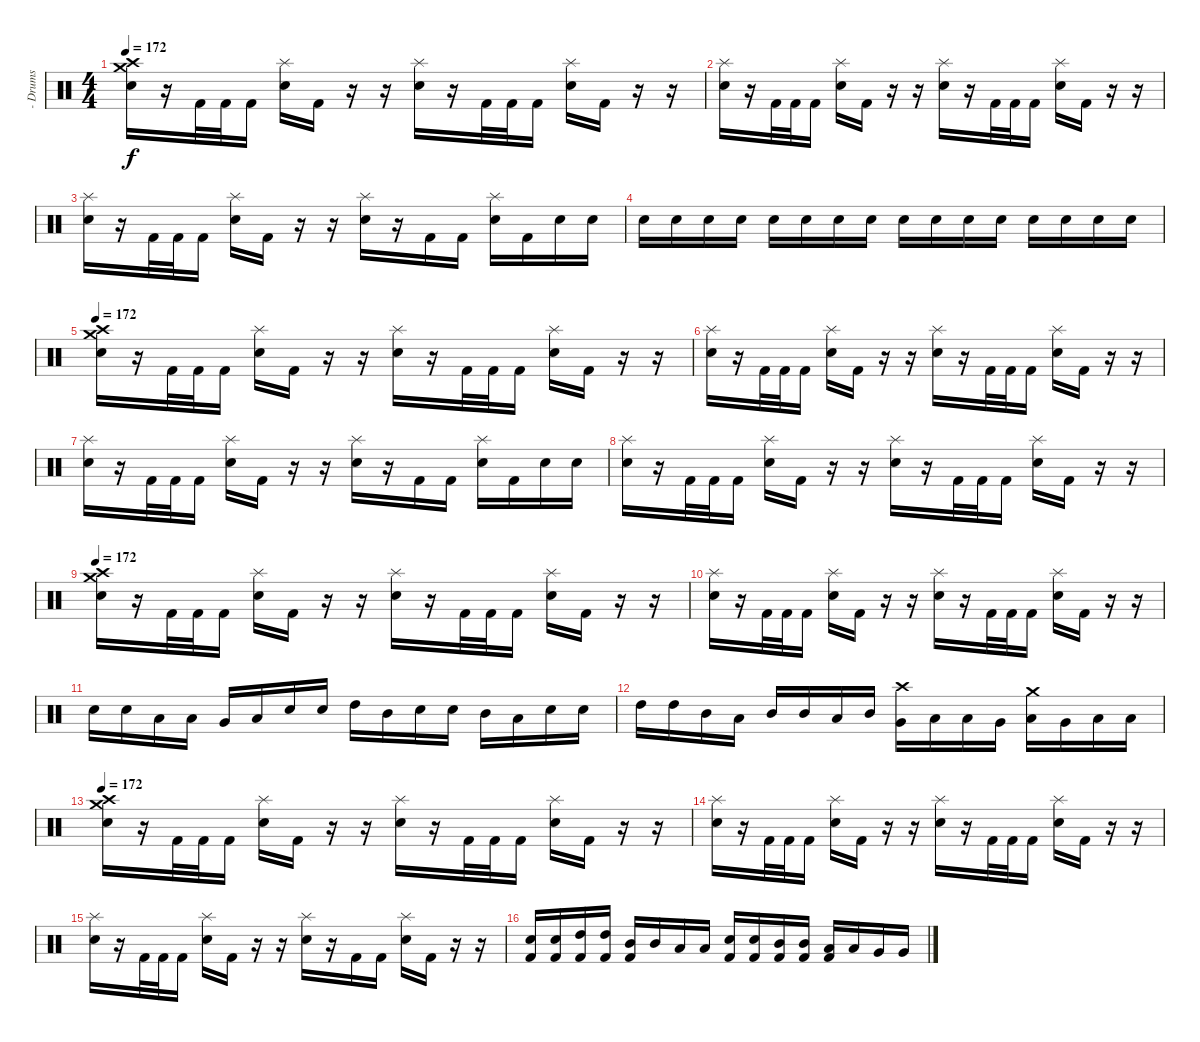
\track (" - Drums" " - Drums") {instrument percussion}
\staff {score}
\articulation defaults
\ts (4 4)
\tempo 172
\clef neutral
\ks c
("Crash high (hit)" "Crash medium (hit)" "Electric Snare (hit)").16{dy f} r.16 "Kick (hit) 2".32 "Kick (hit) 2".32 "Kick (hit) 2".16 ("Splash (hit)" "Electric Snare (hit)").16 "Kick (hit) 2".16 r.16 r.16 ("Splash (hit)" "Electric Snare (hit)").16 r.16 "Kick (hit) 2".32 "Kick (hit) 2".32 "Kick (hit) 2".16 ("Splash (hit)" "Electric Snare (hit)").16 "Kick (hit) 2".16 r.16 r.16 |
("Splash (hit)" "Electric Snare (hit)").16 r.16 "Kick (hit) 2".32 "Kick (hit) 2".32 "Kick (hit) 2".16 ("Splash (hit)" "Electric Snare (hit)").16 "Kick (hit) 2".16 r.16 r.16 ("Splash (hit)" "Electric Snare (hit)").16 r.16 "Kick (hit) 2".32 "Kick (hit) 2".32 "Kick (hit) 2".16 ("Splash (hit)" "Electric Snare (hit)").16 "Kick (hit) 2".16 r.16 r.16 |
("Splash (hit)" "Electric Snare (hit)").16 r.16 "Kick (hit) 2".32 "Kick (hit) 2".32 "Kick (hit) 2".16 ("Splash (hit)" "Electric Snare (hit)").16 "Kick (hit) 2".16 r.16 r.16 ("Splash (hit)" "Electric Snare (hit)").16 r.16 "Kick (hit) 2".16 "Kick (hit) 2".16 ("Splash (hit)" "Electric Snare (hit)").16 "Kick (hit) 2".16 "Electric Snare (hit)".16 "Electric Snare (hit)".16 |
"Electric Snare (hit)".16 "Electric Snare (hit)".16 "Electric Snare (hit)".16 "Electric Snare (hit)".16 "Electric Snare (hit)".16 "Electric Snare (hit)".16 "Electric Snare (hit)".16 "Electric Snare (hit)".16 "Electric Snare (hit)".16 "Electric Snare (hit)".16 "Electric Snare (hit)".16 "Electric Snare (hit)".16 "Electric Snare (hit)".16 "Electric Snare (hit)".16 "Electric Snare (hit)".16 "Electric Snare (hit)".16 |
\tempo 172
("Crash high (hit)" "Crash medium (hit)" "Electric Snare (hit)").16 r.16 "Kick (hit) 2".32 "Kick (hit) 2".32 "Kick (hit) 2".16 ("Splash (hit)" "Electric Snare (hit)").16 "Kick (hit) 2".16 r.16 r.16 ("Splash (hit)" "Electric Snare (hit)").16 r.16 "Kick (hit) 2".32 "Kick (hit) 2".32 "Kick (hit) 2".16 ("Splash (hit)" "Electric Snare (hit)").16 "Kick (hit) 2".16 r.16 r.16 |
("Splash (hit)" "Electric Snare (hit)").16 r.16 "Kick (hit) 2".32 "Kick (hit) 2".32 "Kick (hit) 2".16 ("Splash (hit)" "Electric Snare (hit)").16 "Kick (hit) 2".16 r.16 r.16 ("Splash (hit)" "Electric Snare (hit)").16 r.16 "Kick (hit) 2".32 "Kick (hit) 2".32 "Kick (hit) 2".16 ("Splash (hit)" "Electric Snare (hit)").16 "Kick (hit) 2".16 r.16 r.16 |
("Splash (hit)" "Electric Snare (hit)").16 r.16 "Kick (hit) 2".32 "Kick (hit) 2".32 "Kick (hit) 2".16 ("Splash (hit)" "Electric Snare (hit)").16 "Kick (hit) 2".16 r.16 r.16 ("Splash (hit)" "Electric Snare (hit)").16 r.16 "Kick (hit) 2".16 "Kick (hit) 2".16 ("Splash (hit)" "Electric Snare (hit)").16 "Kick (hit) 2".16 "Electric Snare (hit)".16 "Electric Snare (hit)".16 |
("Splash (hit)" "Electric Snare (hit)").16 r.16 "Kick (hit) 2".32 "Kick (hit) 2".32 "Kick (hit) 2".16 ("Splash (hit)" "Electric Snare (hit)").16 "Kick (hit) 2".16 r.16 r.16 ("Splash (hit)" "Electric Snare (hit)").16 r.16 "Kick (hit) 2".32 "Kick (hit) 2".32 "Kick (hit) 2".16 ("Splash (hit)" "Electric Snare (hit)").16 "Kick (hit) 2".16 r.16 r.16 |
\tempo 172
("Crash high (hit)" "Crash medium (hit)" "Electric Snare (hit)").16 r.16 "Kick (hit) 2".32 "Kick (hit) 2".32 "Kick (hit) 2".16 ("Splash (hit)" "Electric Snare (hit)").16 "Kick (hit) 2".16 r.16 r.16 ("Splash (hit)" "Electric Snare (hit)").16 r.16 "Kick (hit) 2".32 "Kick (hit) 2".32 "Kick (hit) 2".16 ("Splash (hit)" "Electric Snare (hit)").16 "Kick (hit) 2".16 r.16 r.16 |
("Splash (hit)" "Electric Snare (hit)").16 r.16 "Kick (hit) 2".32 "Kick (hit) 2".32 "Kick (hit) 2".16 ("Splash (hit)" "Electric Snare (hit)").16 "Kick (hit) 2".16 r.16 r.16 ("Splash (hit)" "Electric Snare (hit)").16 r.16 "Kick (hit) 2".32 "Kick (hit) 2".32 "Kick (hit) 2".16 ("Splash (hit)" "Electric Snare (hit)").16 "Kick (hit) 2".16 r.16 r.16 |
"Electric Snare (hit)".16 "Electric Snare (hit)".16 "Low Tom (hit)".16 "Low Tom (hit)".16 "Very Low Tom (hit)".16 "Low Tom (hit)".16 "Electric Snare (hit)".16 "Electric Snare (hit)".16 "High Tom (hit)".16 "Mid Tom (hit)".16 "Electric Snare (hit)".16 "Electric Snare (hit)".16 "Mid Tom (hit)".16 "Low Tom (hit)".16 "Electric Snare (hit)".16 "Electric Snare (hit)".16 |
"High Tom (hit)".16 "High Tom (hit)".16 "Mid Tom (hit)".16 "Low Tom (hit)".16 "Mid Tom (hit)".16 "Mid Tom (hit)".16 "Low Tom (hit)".16 "Mid Tom (hit)".16 ("Crash high (hit)" "Very Low Tom (hit)").16 "Low Tom (hit)".16 "Low Tom (hit)".16 "Very Low Tom (hit)".16 ("Crash medium (hit)" "Low Floor Tom (hit)").16 "Very Low Tom (hit)".16 "Low Floor Tom (hit)".16 "Low Floor Tom (hit)".16 |
\tempo 172
("Crash high (hit)" "Crash medium (hit)" "Electric Snare (hit)").16 r.16 "Kick (hit) 2".32 "Kick (hit) 2".32 "Kick (hit) 2".16 ("Splash (hit)" "Electric Snare (hit)").16 "Kick (hit) 2".16 r.16 r.16 ("Splash (hit)" "Electric Snare (hit)").16 r.16 "Kick (hit) 2".32 "Kick (hit) 2".32 "Kick (hit) 2".16 ("Splash (hit)" "Electric Snare (hit)").16 "Kick (hit) 2".16 r.16 r.16 |
("Splash (hit)" "Electric Snare (hit)").16 r.16 "Kick (hit) 2".32 "Kick (hit) 2".32 "Kick (hit) 2".16 ("Splash (hit)" "Electric Snare (hit)").16 "Kick (hit) 2".16 r.16 r.16 ("Splash (hit)" "Electric Snare (hit)").16 r.16 "Kick (hit) 2".32 "Kick (hit) 2".32 "Kick (hit) 2".16 ("Splash (hit)" "Electric Snare (hit)").16 "Kick (hit) 2".16 r.16 r.16 |
("Splash (hit)" "Electric Snare (hit)").16 r.16 "Kick (hit) 2".32 "Kick (hit) 2".32 "Kick (hit) 2".16 ("Splash (hit)" "Electric Snare (hit)").16 "Kick (hit) 2".16 r.16 r.16 ("Splash (hit)" "Electric Snare (hit)").16 r.16 "Kick (hit) 2".16 "Kick (hit) 2".16 ("Splash (hit)" "Electric Snare (hit)").16 "Kick (hit) 2".16 r.16 r.16 |
("Electric Snare (hit)" "Kick (hit) 2").16 ("Electric Snare (hit)" "Kick (hit) 2").16 ("High Tom (hit)" "Kick (hit) 2").16 ("High Tom (hit)" "Kick (hit) 2").16 ("Mid Tom (hit)" "Kick (hit) 2").16 "Mid Tom (hit)".16 "Low Tom (hit)".16 "Low Tom (hit)".16 ("Electric Snare (hit)" "Kick (hit) 2").16 ("Electric Snare (hit)" "Kick (hit) 2").16 ("Mid Tom (hit)" "Kick (hit) 2").16 ("Mid Tom (hit)" "Kick (hit) 2").16 ("Low Tom (hit)" "Kick (hit) 2").16 "Low Tom (hit)".16 "Very Low Tom (hit)".16 "Very Low Tom (hit)".16
